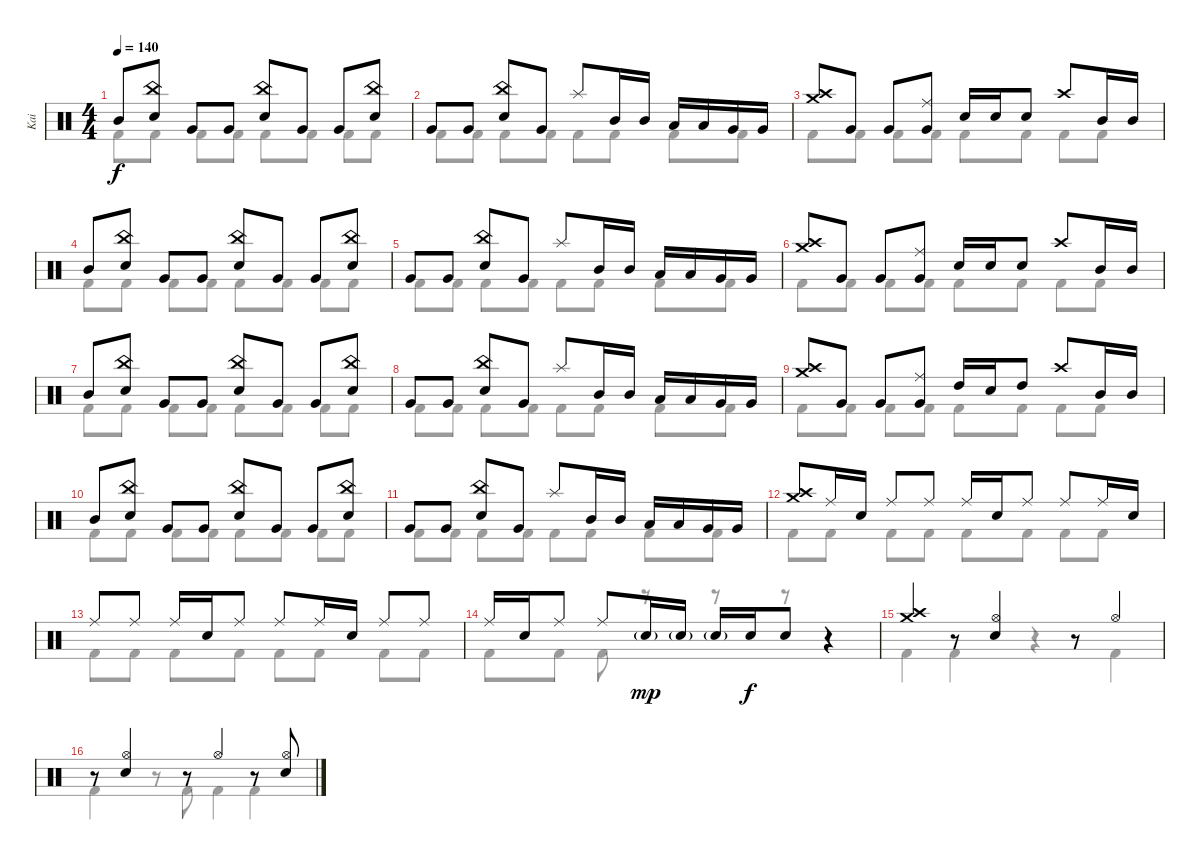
\track ("Kai" "Kai") {instrument percussion}
\staff {score}
\articulation defaults
\voice
\ts (4 4)
\tempo 140
\clef neutral
\ks c "Mid Tom (hit)".8{dy f}
("China (hit)" "Snare (hit) 2").8 "Very Low Tom (hit)".8 "Very Low Tom (hit)".8 ("China (hit)" "Snare (hit) 2").8 "Very Low Tom (hit)".8 "Very Low Tom (hit)".8 ("China (hit)" "Snare (hit) 2").8 |
"Very Low Tom (hit)".8 "Very Low Tom (hit)".8 ("China (hit)" "Snare (hit) 2").8 "Very Low Tom (hit)".8 "Splash (hit)".8 "Mid Tom (hit)".16 "Mid Tom (hit)".16 "Low Tom (hit)".16 "Low Tom (hit)".16 "Very Low Tom (hit)".16 "Very Low Tom (hit)".16 |
("Crash high (hit)" "Crash medium (hit)").8 "Very Low Tom (hit)".8 "Very Low Tom (hit)".8 ("Ride (middle)" "Very Low Tom (hit)").8 "Snare (hit) 2".16 "Snare (hit) 2".16 "Snare (hit) 2".8 "Crash high (hit)".8 "Mid Tom (hit)".16 "Mid Tom (hit)".16 |
"Mid Tom (hit)".8 ("China (hit)" "Snare (hit) 2").8 "Very Low Tom (hit)".8 "Very Low Tom (hit)".8 ("China (hit)" "Snare (hit) 2").8 "Very Low Tom (hit)".8 "Very Low Tom (hit)".8 ("China (hit)" "Snare (hit) 2").8 |
"Very Low Tom (hit)".8 "Very Low Tom (hit)".8 ("China (hit)" "Snare (hit) 2").8 "Very Low Tom (hit)".8 "Splash (hit)".8 "Mid Tom (hit)".16 "Mid Tom (hit)".16 "Low Tom (hit)".16 "Low Tom (hit)".16 "Very Low Tom (hit)".16 "Very Low Tom (hit)".16 |
("Crash high (hit)" "Crash medium (hit)").8 "Very Low Tom (hit)".8 "Very Low Tom (hit)".8 ("Ride (middle)" "Very Low Tom (hit)").8 "Snare (hit) 2".16 "Snare (hit) 2".16 "Snare (hit) 2".8 "Crash high (hit)".8 "Mid Tom (hit)".16 "Mid Tom (hit)".16 |
"Mid Tom (hit)".8 ("China (hit)" "Snare (hit) 2").8 "Very Low Tom (hit)".8 "Very Low Tom (hit)".8 ("China (hit)" "Snare (hit) 2").8 "Very Low Tom (hit)".8 "Very Low Tom (hit)".8 ("China (hit)" "Snare (hit) 2").8 |
"Very Low Tom (hit)".8 "Very Low Tom (hit)".8 ("China (hit)" "Snare (hit) 2").8 "Very Low Tom (hit)".8 "Splash (hit)".8 "Mid Tom (hit)".16 "Mid Tom (hit)".16 "Low Tom (hit)".16 "Low Tom (hit)".16 "Very Low Tom (hit)".16 "Very Low Tom (hit)".16 |
("Crash high (hit)" "Crash medium (hit)").8 "Very Low Tom (hit)".8 "Very Low Tom (hit)".8 ("Ride (middle)" "Very Low Tom (hit)").8 "High Tom (hit)".16 "Snare (hit) 2".16 "High Tom (hit)".8 "Crash high (hit)".8 "Mid Tom (hit)".16 "Mid Tom (hit)".16 |
"Mid Tom (hit)".8 ("China (hit)" "Snare (hit) 2").8 "Very Low Tom (hit)".8 "Very Low Tom (hit)".8 ("China (hit)" "Snare (hit) 2").8 "Very Low Tom (hit)".8 "Very Low Tom (hit)".8 ("China (hit)" "Snare (hit) 2").8 |
"Very Low Tom (hit)".8 "Very Low Tom (hit)".8 ("China (hit)" "Snare (hit) 2").8 "Very Low Tom (hit)".8 "Splash (hit)".8 "Mid Tom (hit)".16 "Mid Tom (hit)".16 "Low Tom (hit)".16 "Low Tom (hit)".16 "Very Low Tom (hit)".16 "Very Low Tom (hit)".16 |
("Crash medium (hit)" "Crash high (hit)").8 "Ride (middle)".16 "Snare (hit) 2".16 "Ride (middle)".8 "Ride (middle)".8 "Ride (middle)".16 "Snare (hit) 2".16 "Ride (middle)".8 "Ride (middle)".8 "Ride (middle)".16 "Snare (hit) 2".16 |
"Ride (middle)".8 "Ride (middle)".8 "Ride (middle)".16 "Snare (hit) 2".16 "Ride (middle)".8 "Ride (middle)".8 "Ride (middle)".16 "Snare (hit) 2".16 "Ride (middle)".8 "Ride (middle)".8 |
"Ride (middle)".16 "Snare (hit) 2".16 "Ride (middle)".8 "Ride (middle)".8 "Snare (hit) 2"{g}.16{dy mp} "Snare (hit) 2"{g}.16 "Snare (hit) 2"{g}.16 "Snare (hit) 2".16{dy f} "Snare (hit) 2".8 r.4 |
("Crash medium (hit)" "Crash high (hit)").4 r.8 ("Hi-Hat (open)" "Snare (hit) 2").4 r.8 "Hi-Hat (open)".4 |
r.8 ("Hi-Hat (open)" "Snare (hit) 2").4 r.8 "Hi-Hat (open)".4 r.8 ("Hi-Hat (open)" "Snare (hit) 2").8
\voice
\clef neutral
\ottava regular
\simile none
\ks c "Kick (hit) 2".8{dy f} "Kick (hit) 2".8 "Kick (hit) 2".8 "Kick (hit) 2".8 "Kick (hit) 2".8 "Kick (hit) 2".8 "Kick (hit) 2".8 "Kick (hit) 2".8
|
"Kick (hit) 2".8 "Kick (hit) 2".8 "Kick (hit) 2".8 "Kick (hit) 2".8 "Kick (hit) 2".8 "Kick (hit) 2".8 "Kick (hit) 2".8 "Kick (hit) 2".8 |
"Kick (hit) 2".8 "Kick (hit) 2".8 "Kick (hit) 2".8 "Kick (hit) 2".8 "Kick (hit) 2".8 "Kick (hit) 2".8 "Kick (hit) 2".8 "Kick (hit) 2".8 |
"Kick (hit) 2".8 "Kick (hit) 2".8 "Kick (hit) 2".8 "Kick (hit) 2".8 "Kick (hit) 2".8 "Kick (hit) 2".8 "Kick (hit) 2".8 "Kick (hit) 2".8 |
"Kick (hit) 2".8 "Kick (hit) 2".8 "Kick (hit) 2".8 "Kick (hit) 2".8 "Kick (hit) 2".8 "Kick (hit) 2".8 "Kick (hit) 2".8 "Kick (hit) 2".8 |
"Kick (hit) 2".8 "Kick (hit) 2".8 "Kick (hit) 2".8 "Kick (hit) 2".8 "Kick (hit) 2".8 "Kick (hit) 2".8 "Kick (hit) 2".8 "Kick (hit) 2".8 |
"Kick (hit) 2".8 "Kick (hit) 2".8 "Kick (hit) 2".8 "Kick (hit) 2".8 "Kick (hit) 2".8 "Kick (hit) 2".8 "Kick (hit) 2".8 "Kick (hit) 2".8 |
"Kick (hit) 2".8 "Kick (hit) 2".8 "Kick (hit) 2".8 "Kick (hit) 2".8 "Kick (hit) 2".8 "Kick (hit) 2".8 "Kick (hit) 2".8 "Kick (hit) 2".8 |
"Kick (hit) 2".8 "Kick (hit) 2".8 "Kick (hit) 2".8 "Kick (hit) 2".8 "Kick (hit) 2".8 "Kick (hit) 2".8 "Kick (hit) 2".8 "Kick (hit) 2".8 |
"Kick (hit) 2".8 "Kick (hit) 2".8 "Kick (hit) 2".8 "Kick (hit) 2".8 "Kick (hit) 2".8 "Kick (hit) 2".8 "Kick (hit) 2".8 "Kick (hit) 2".8 |
"Kick (hit) 2".8 "Kick (hit) 2".8 "Kick (hit) 2".8 "Kick (hit) 2".8 "Kick (hit) 2".8 "Kick (hit) 2".8 "Kick (hit) 2".8 "Kick (hit) 2".8 |
"Kick (hit) 2".8 "Kick (hit) 2".8 "Kick (hit) 2".8 "Kick (hit) 2".8 "Kick (hit) 2".8 "Kick (hit) 2".8 "Kick (hit) 2".8 "Kick (hit) 2".8 |
"Kick (hit) 2".8 "Kick (hit) 2".8 "Kick (hit) 2".8 "Kick (hit) 2".8 "Kick (hit) 2".8 "Kick (hit) 2".8 "Kick (hit) 2".8 "Kick (hit) 2".8 |
"Kick (hit) 2".8 "Kick (hit) 2".8 "Kick (hit) 2".8 r.8 r.8 r.8 r.4 |
"Kick (hit) 2".4 "Kick (hit) 2".4 r.4 "Kick (hit) 2".4 |
"Kick (hit) 2".4 r.8 "Kick (hit) 2".8 "Kick (hit) 2".4 "Kick (hit) 2".4
